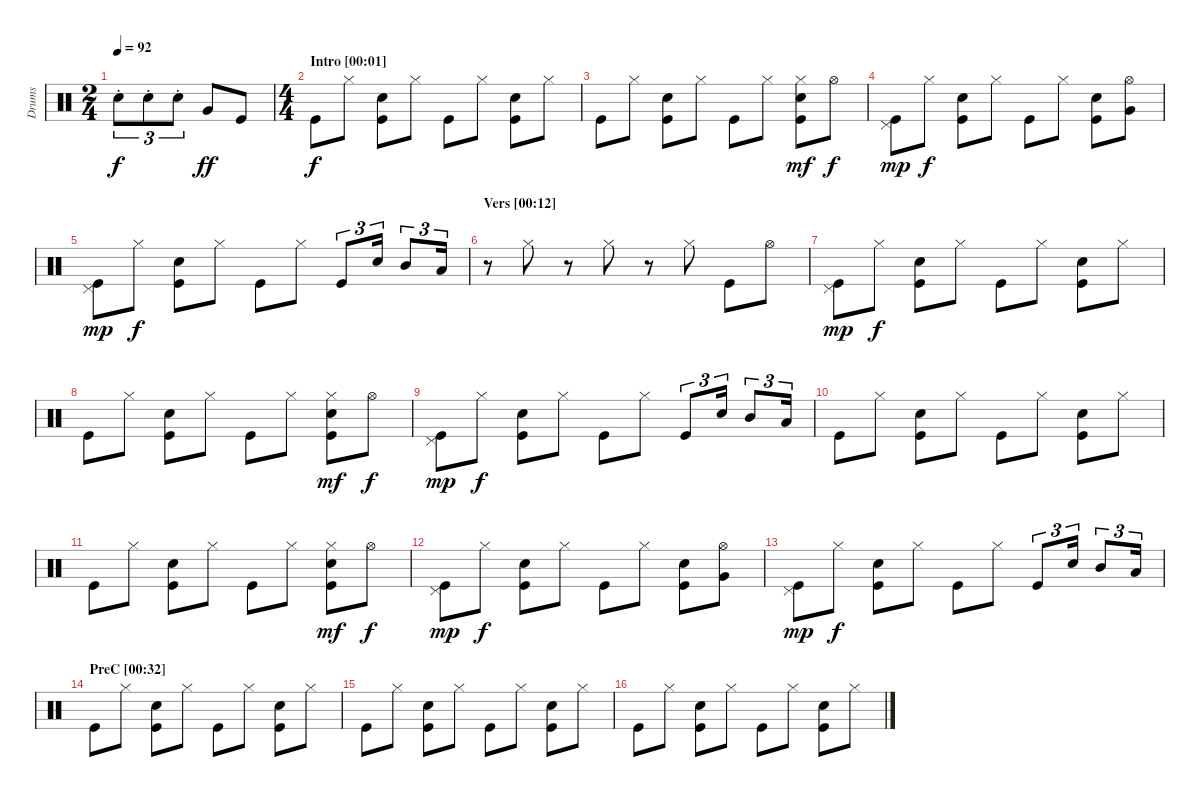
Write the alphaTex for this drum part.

\track ("Drums" "Drums") {instrument percussion}
\staff {score}
\articulation defaults
\ts (2 4)
\tempo 92
\clef neutral
\ks c "Electric Snare (hit)"{st}.8{tu (3 2) dy f} "Electric Snare (hit)"{st}.8{tu (3 2)} "Electric Snare (hit)"{st}.8{tu (3 2)} "Very Low Tom (hit)".8{dy ff} "Kick (hit)".8
|
\ts (4 4)
\section ("" "Intro [00:01]")
"Kick (hit)".8{dy f} "Hi-Hat (closed)".8 ("Electric Snare (hit)" "Kick (hit)").8 "Hi-Hat (closed)".8 "Kick (hit)".8 "Hi-Hat (closed)".8 ("Electric Snare (hit)" "Kick (hit)").8 "Hi-Hat (closed)".8 |
"Kick (hit)".8 "Hi-Hat (closed)".8 ("Electric Snare (hit)" "Kick (hit)").8 "Hi-Hat (closed)".8 "Kick (hit)".8 "Hi-Hat (closed)".8 ("Hi-Hat (closed)" "Electric Snare (hit)" "Kick (hit)").8{dy mf} "Hi-Hat (open)".8{dy f} |
("Pedal Hi-Hat (hit)" "Kick (hit)").8{dy mp} "Hi-Hat (closed)".8{dy f} ("Electric Snare (hit)" "Kick (hit)").8 "Hi-Hat (closed)".8 "Kick (hit)".8 "Hi-Hat (closed)".8 ("Electric Snare (hit)" "Kick (hit)").8 ("Hi-Hat (open)" "Very Low Tom (hit)").8 |
("Pedal Hi-Hat (hit)" "Kick (hit)").8{dy mp} "Hi-Hat (closed)".8{dy f} ("Electric Snare (hit)" "Kick (hit)").8 "Hi-Hat (closed)".8 "Kick (hit)".8 "Hi-Hat (closed)".8 "Kick (hit)".8{tu (3 2)} "Electric Snare (hit)".16{tu (3 2)} "Mid Tom (hit)".8{tu (3 2)} "Low Tom (hit)".16{tu (3 2)} |
\section ("" "Vers [00:12]")
r.8 "Hi-Hat (closed)".8 r.8 "Hi-Hat (closed)".8 r.8 "Hi-Hat (closed)".8 "Kick (hit)".8 "Hi-Hat (open)".8 |
("Pedal Hi-Hat (hit)" "Kick (hit)").8{dy mp} "Hi-Hat (closed)".8{dy f} ("Electric Snare (hit)" "Kick (hit)").8 "Hi-Hat (closed)".8 "Kick (hit)".8 "Hi-Hat (closed)".8 ("Electric Snare (hit)" "Kick (hit)").8 "Hi-Hat (closed)".8 |
"Kick (hit)".8 "Hi-Hat (closed)".8 ("Electric Snare (hit)" "Kick (hit)").8 "Hi-Hat (closed)".8 "Kick (hit)".8 "Hi-Hat (closed)".8 ("Hi-Hat (closed)" "Electric Snare (hit)" "Kick (hit)").8{dy mf} "Hi-Hat (open)".8{dy f} |
("Pedal Hi-Hat (hit)" "Kick (hit)").8{dy mp} "Hi-Hat (closed)".8{dy f} ("Electric Snare (hit)" "Kick (hit)").8 "Hi-Hat (closed)".8 "Kick (hit)".8 "Hi-Hat (closed)".8 "Kick (hit)".8{tu (3 2)} "Electric Snare (hit)".16{tu (3 2)} "Mid Tom (hit)".8{tu (3 2)} "Low Tom (hit)".16{tu (3 2)} |
\section ("" "")
"Kick (hit)".8 "Hi-Hat (closed)".8 ("Electric Snare (hit)" "Kick (hit)").8 "Hi-Hat (closed)".8 "Kick (hit)".8 "Hi-Hat (closed)".8 ("Electric Snare (hit)" "Kick (hit)").8 "Hi-Hat (closed)".8 |
"Kick (hit)".8 "Hi-Hat (closed)".8 ("Electric Snare (hit)" "Kick (hit)").8 "Hi-Hat (closed)".8 "Kick (hit)".8 "Hi-Hat (closed)".8 ("Hi-Hat (closed)" "Electric Snare (hit)" "Kick (hit)").8{dy mf} "Hi-Hat (open)".8{dy f} |
("Pedal Hi-Hat (hit)" "Kick (hit)").8{dy mp} "Hi-Hat (closed)".8{dy f} ("Electric Snare (hit)" "Kick (hit)").8 "Hi-Hat (closed)".8 "Kick (hit)".8 "Hi-Hat (closed)".8 ("Electric Snare (hit)" "Kick (hit)").8 ("Hi-Hat (open)" "Very Low Tom (hit)").8 |
("Pedal Hi-Hat (hit)" "Kick (hit)").8{dy mp} "Hi-Hat (closed)".8{dy f} ("Electric Snare (hit)" "Kick (hit)").8 "Hi-Hat (closed)".8 "Kick (hit)".8 "Hi-Hat (closed)".8 "Kick (hit)".8{tu (3 2)} "Electric Snare (hit)".16{tu (3 2)} "Mid Tom (hit)".8{tu (3 2)} "Low Tom (hit)".16{tu (3 2)} |
\section ("" "PreC [00:32]")
"Kick (hit)".8 "Hi-Hat (closed)".8 ("Electric Snare (hit)" "Kick (hit)").8 "Hi-Hat (closed)".8 "Kick (hit)".8 "Hi-Hat (closed)".8 ("Electric Snare (hit)" "Kick (hit)").8 "Hi-Hat (closed)".8 |
"Kick (hit)".8 "Hi-Hat (closed)".8 ("Electric Snare (hit)" "Kick (hit)").8 "Hi-Hat (closed)".8 "Kick (hit)".8 "Hi-Hat (closed)".8 ("Electric Snare (hit)" "Kick (hit)").8 "Hi-Hat (closed)".8 |
"Kick (hit)".8 "Hi-Hat (closed)".8 ("Electric Snare (hit)" "Kick (hit)").8 "Hi-Hat (closed)".8 "Kick (hit)".8 "Hi-Hat (closed)".8 ("Electric Snare (hit)" "Kick (hit)").8 "Hi-Hat (closed)".8
